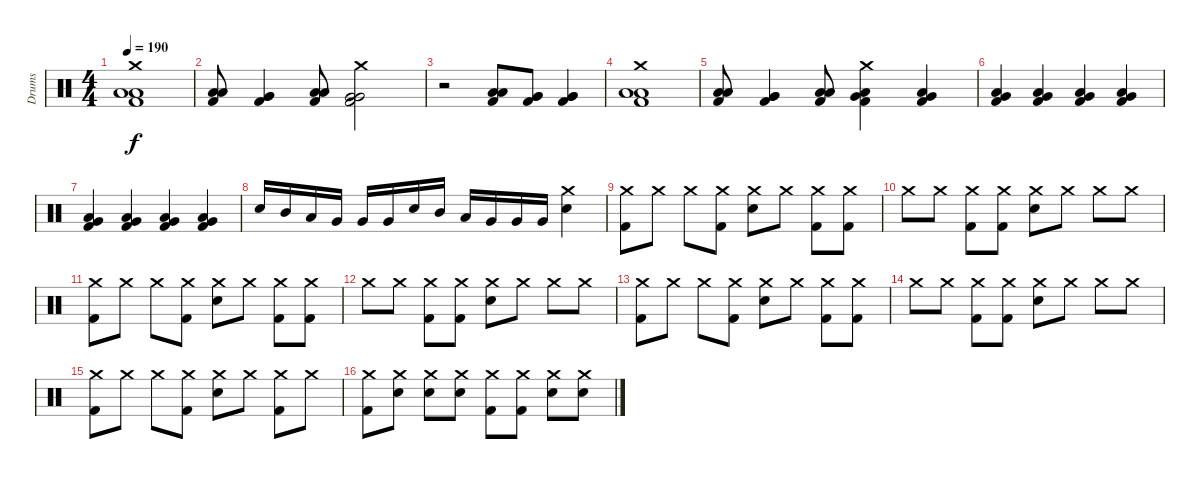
\track ("Drums" "Drums") {instrument percussion}
\staff {score}
\articulation defaults
\ts (4 4)
\tempo 190
\clef neutral
\ks c
("Crash medium (hit)" "Low Floor Tom (hit)" "Low Floor Tom (hit)" "Kick (hit) 2").1{dy f} |
("Low Floor Tom (hit)" "Low Floor Tom (hit)" "Kick (hit) 2").8 ("Very Low Tom (hit)" "Very Low Tom (hit)" "Kick (hit) 2").4 ("Low Floor Tom (hit)" "Low Floor Tom (hit)" "Kick (hit) 2").8 ("Crash medium (hit)" "Very Low Tom (hit)" "Very Low Tom (hit)" "Kick (hit) 2").2 |
r.2 ("Low Floor Tom (hit)" "Low Floor Tom (hit)" "Kick (hit) 2").8 ("Very Low Tom (hit)" "Very Low Tom (hit)" "Kick (hit) 2").8 ("Very Low Tom (hit)" "Very Low Tom (hit)" "Kick (hit) 2").4 |
("Crash medium (hit)" "Low Floor Tom (hit)" "Low Floor Tom (hit)" "Kick (hit) 2").1 |
("Low Tom (hit)" "Low Tom (hit)" "Kick (hit) 2").8 ("Very Low Tom (hit)" "Very Low Tom (hit)" "Kick (hit) 2").4 ("Low Floor Tom (hit)" "Low Floor Tom (hit)" "Kick (hit) 2").8 ("Crash medium (hit)" "Very Low Tom (hit)" "Low Floor Tom (hit)" "Kick (hit) 2").4 ("Very Low Tom (hit)" "Low Floor Tom (hit)" "Kick (hit) 2").4 |
("Very Low Tom (hit)" "Low Floor Tom (hit)" "Kick (hit) 2").4 ("Very Low Tom (hit)" "Low Floor Tom (hit)" "Kick (hit) 2").4 ("Very Low Tom (hit)" "Low Floor Tom (hit)" "Kick (hit) 2").4 ("Very Low Tom (hit)" "Low Floor Tom (hit)" "Kick (hit) 2").4 |
("Very Low Tom (hit)" "Low Floor Tom (hit)" "Kick (hit) 2").4 ("Very Low Tom (hit)" "Low Floor Tom (hit)" "Kick (hit) 2").4 ("Very Low Tom (hit)" "Low Floor Tom (hit)" "Kick (hit) 2").4 ("Very Low Tom (hit)" "Low Floor Tom (hit)" "Kick (hit) 2").4 |
"Electric Snare (hit)".16 "Mid Tom (hit)".16 "Low Tom (hit)".16 "Very Low Tom (hit)".16 "Very Low Tom (hit)".16 "Very Low Tom (hit)".16 "Electric Snare (hit)".16 "Mid Tom (hit)".16 "Low Tom (hit)".16 "Very Low Tom (hit)".16 "Very Low Tom (hit)".16 "Very Low Tom (hit)".16 ("Crash medium (hit)" "Electric Snare (hit)").4 |
("Crash medium (hit)" "Kick (hit) 2").8 "Crash medium (hit)".8 "Crash medium (hit)".8 ("Crash medium (hit)" "Kick (hit) 2").8 ("Crash medium (hit)" "Electric Snare (hit)").8 "Crash medium (hit)".8 ("Crash medium (hit)" "Kick (hit) 2").8 ("Crash medium (hit)" "Kick (hit) 2").8 |
"Crash medium (hit)".8 "Crash medium (hit)".8 ("Crash medium (hit)" "Kick (hit) 2").8 ("Crash medium (hit)" "Kick (hit) 2").8 ("Crash medium (hit)" "Electric Snare (hit)").8 "Crash medium (hit)".8 "Crash medium (hit)".8 "Crash medium (hit)".8 |
("Crash medium (hit)" "Kick (hit) 2").8 "Crash medium (hit)".8 "Crash medium (hit)".8 ("Crash medium (hit)" "Kick (hit) 2").8 ("Crash medium (hit)" "Electric Snare (hit)").8 "Crash medium (hit)".8 ("Crash medium (hit)" "Kick (hit) 2").8 ("Crash medium (hit)" "Kick (hit) 2").8 |
"Crash medium (hit)".8 "Crash medium (hit)".8 ("Crash medium (hit)" "Kick (hit) 2").8 ("Crash medium (hit)" "Kick (hit) 2").8 ("Crash medium (hit)" "Electric Snare (hit)").8 "Crash medium (hit)".8 "Crash medium (hit)".8 "Crash medium (hit)".8 |
("Crash medium (hit)" "Kick (hit) 2").8 "Crash medium (hit)".8 "Crash medium (hit)".8 ("Crash medium (hit)" "Kick (hit) 2").8 ("Crash medium (hit)" "Electric Snare (hit)").8 "Crash medium (hit)".8 ("Crash medium (hit)" "Kick (hit) 2").8 ("Crash medium (hit)" "Kick (hit) 2").8 |
"Crash medium (hit)".8 "Crash medium (hit)".8 ("Crash medium (hit)" "Kick (hit) 2").8 ("Crash medium (hit)" "Kick (hit) 2").8 ("Crash medium (hit)" "Electric Snare (hit)").8 "Crash medium (hit)".8 "Crash medium (hit)".8 "Crash medium (hit)".8 |
("Crash medium (hit)" "Kick (hit) 2").8 "Crash medium (hit)".8 "Crash medium (hit)".8 ("Crash medium (hit)" "Kick (hit) 2").8 ("Crash medium (hit)" "Electric Snare (hit)").8 "Crash medium (hit)".8 ("Crash medium (hit)" "Kick (hit) 2").8 "Crash medium (hit)".8 |
("Crash medium (hit)" "Kick (hit) 2").8 ("Crash medium (hit)" "Electric Snare (hit)").8 ("Crash medium (hit)" "Electric Snare (hit)").8 ("Crash medium (hit)" "Electric Snare (hit)").8 ("Crash medium (hit)" "Kick (hit) 2").8 ("Crash medium (hit)" "Kick (hit) 2").8 ("Crash medium (hit)" "Electric Snare (hit)").8 ("Crash medium (hit)" "Electric Snare (hit)").8
